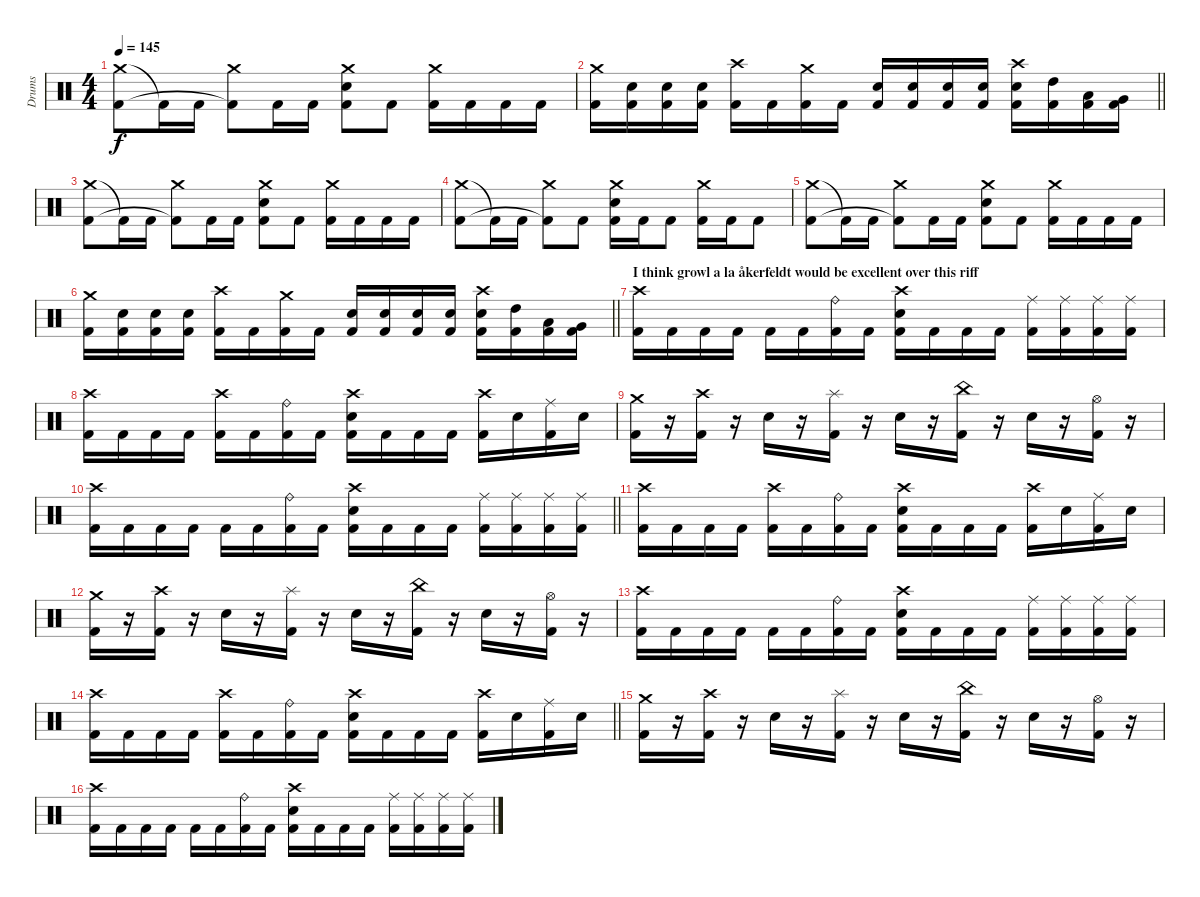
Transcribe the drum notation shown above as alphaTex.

\track ("Drums" "Drums") {mute instrument percussion}
\staff {score}
\articulation defaults
\ts (4 4)
\tempo 145
\clef neutral
\ks c
("Crash medium (hit)" "Kick (hit) 2").8{dy f} "Kick (hit) 2"{t}.16 "Kick (hit) 2".16 ("Crash medium (hit)" "Kick (hit) 2"{t}).8 "Kick (hit) 2".16 "Kick (hit) 2".16 ("Crash medium (hit)" "Electric Snare (hit)" "Kick (hit) 2").8 "Kick (hit) 2".8 ("Crash medium (hit)" "Kick (hit) 2").16 "Kick (hit) 2".16 "Kick (hit) 2".16 "Kick (hit) 2".16 |
\barLineRight lightlight
("Crash medium (hit)" "Kick (hit) 2").16 ("Electric Snare (hit)" "Kick (hit) 2").16 ("Electric Snare (hit)" "Kick (hit) 2").16 ("Electric Snare (hit)" "Kick (hit) 2").16 ("Crash high (hit)" "Kick (hit) 2").16 "Kick (hit) 2".16 ("Crash medium (hit)" "Kick (hit) 2").16 "Kick (hit) 2".16 ("Electric Snare (hit)" "Kick (hit) 2").16 ("Electric Snare (hit)" "Kick (hit) 2").16 ("Electric Snare (hit)" "Kick (hit) 2").16 ("Electric Snare (hit)" "Kick (hit) 2").16 ("Crash high (hit)" "Electric Snare (hit)" "Kick (hit) 2").16 ("High Tom (hit)" "Kick (hit) 2").16 ("Low Tom (hit)" "Kick (hit) 2").16 ("Very Low Tom (hit)" "Kick (hit) 2").16 |
("Crash medium (hit)" "Kick (hit) 2").8 "Kick (hit) 2"{t}.16 "Kick (hit) 2".16 ("Crash medium (hit)" "Kick (hit) 2"{t}).8 "Kick (hit) 2".16 "Kick (hit) 2".16 ("Crash medium (hit)" "Electric Snare (hit)" "Kick (hit) 2").8 "Kick (hit) 2".8 ("Crash medium (hit)" "Kick (hit) 2").16 "Kick (hit) 2".16 "Kick (hit) 2".16 "Kick (hit) 2".16 |
("Crash medium (hit)" "Kick (hit) 2").8 "Kick (hit) 2"{t}.16 "Kick (hit) 2".16 ("Crash medium (hit)" "Kick (hit) 2"{t}).8 "Kick (hit) 2".8 ("Crash medium (hit)" "Electric Snare (hit)" "Kick (hit) 2").16 "Kick (hit) 2".16 "Kick (hit) 2".8 ("Crash medium (hit)" "Kick (hit) 2").16 "Kick (hit) 2".16 "Kick (hit) 2".8 |
("Crash medium (hit)" "Kick (hit) 2").8 "Kick (hit) 2"{t}.16 "Kick (hit) 2".16 ("Crash medium (hit)" "Kick (hit) 2"{t}).8 "Kick (hit) 2".16 "Kick (hit) 2".16 ("Crash medium (hit)" "Electric Snare (hit)" "Kick (hit) 2").8 "Kick (hit) 2".8 ("Crash medium (hit)" "Kick (hit) 2").16 "Kick (hit) 2".16 "Kick (hit) 2".16 "Kick (hit) 2".16 |
\barLineRight lightlight
("Crash medium (hit)" "Kick (hit) 2").16 ("Electric Snare (hit)" "Kick (hit) 2").16 ("Electric Snare (hit)" "Kick (hit) 2").16 ("Electric Snare (hit)" "Kick (hit) 2").16 ("Crash high (hit)" "Kick (hit) 2").16 "Kick (hit) 2".16 ("Crash medium (hit)" "Kick (hit) 2").16 "Kick (hit) 2".16 ("Electric Snare (hit)" "Kick (hit) 2").16 ("Electric Snare (hit)" "Kick (hit) 2").16 ("Electric Snare (hit)" "Kick (hit) 2").16 ("Electric Snare (hit)" "Kick (hit) 2").16 ("Crash high (hit)" "Electric Snare (hit)" "Kick (hit) 2").16 ("High Tom (hit)" "Kick (hit) 2").16 ("Low Tom (hit)" "Kick (hit) 2").16 ("Very Low Tom (hit)" "Kick (hit) 2").16 |
\section ("" "I think growl a la åkerfeldt would be excellent over this riff")
("Crash high (hit)" "Kick (hit) 2").16 "Kick (hit) 2".16 "Kick (hit) 2".16 "Kick (hit) 2".16 "Kick (hit) 2".16 "Kick (hit) 2".16 ("Ride (bell)" "Kick (hit) 2").16 "Kick (hit) 2".16 ("Crash high (hit)" "Electric Snare (hit)" "Kick (hit) 2").16 "Kick (hit) 2".16 "Kick (hit) 2".16 "Kick (hit) 2".16 ("Ride (middle)" "Kick (hit) 2").16 ("Ride (middle)" "Kick (hit) 2").16 ("Ride (middle)" "Kick (hit) 2").16 ("Ride (middle)" "Kick (hit) 2").16 |
("Crash high (hit)" "Kick (hit) 2").16 "Kick (hit) 2".16 "Kick (hit) 2".16 "Kick (hit) 2".16 ("Crash high (hit)" "Kick (hit) 2").16 "Kick (hit) 2".16 ("Ride (bell)" "Kick (hit) 2").16 "Kick (hit) 2".16 ("Crash high (hit)" "Electric Snare (hit)" "Kick (hit) 2").16 "Kick (hit) 2".16 "Kick (hit) 2".16 "Kick (hit) 2".16 ("Crash high (hit)" "Kick (hit) 2").16 "Electric Snare (hit)".16 ("Ride (middle)" "Kick (hit) 2").16 "Electric Snare (hit)".16 |
("Crash medium (hit)" "Kick (hit) 2").16 r.16 ("Crash high (hit)" "Kick (hit) 2").16 r.16 "Electric Snare (hit)".16 r.16 ("Splash (hit)" "Kick (hit) 2").16 r.16 "Electric Snare (hit)".16 r.16 ("China (hit)" "Kick (hit) 2").16 r.16 "Electric Snare (hit)".16 r.16 ("Hi-Hat (open)" "Kick (hit) 2").16 r.16 |
\barLineRight lightlight
("Crash high (hit)" "Kick (hit) 2").16 "Kick (hit) 2".16 "Kick (hit) 2".16 "Kick (hit) 2".16 "Kick (hit) 2".16 "Kick (hit) 2".16 ("Ride (bell)" "Kick (hit) 2").16 "Kick (hit) 2".16 ("Crash high (hit)" "Electric Snare (hit)" "Kick (hit) 2").16 "Kick (hit) 2".16 "Kick (hit) 2".16 "Kick (hit) 2".16 ("Ride (middle)" "Kick (hit) 2").16 ("Ride (middle)" "Kick (hit) 2").16 ("Ride (middle)" "Kick (hit) 2").16 ("Ride (middle)" "Kick (hit) 2").16 |
("Crash high (hit)" "Kick (hit) 2").16 "Kick (hit) 2".16 "Kick (hit) 2".16 "Kick (hit) 2".16 ("Crash high (hit)" "Kick (hit) 2").16 "Kick (hit) 2".16 ("Ride (bell)" "Kick (hit) 2").16 "Kick (hit) 2".16 ("Crash high (hit)" "Electric Snare (hit)" "Kick (hit) 2").16 "Kick (hit) 2".16 "Kick (hit) 2".16 "Kick (hit) 2".16 ("Crash high (hit)" "Kick (hit) 2").16 "Electric Snare (hit)".16 ("Ride (middle)" "Kick (hit) 2").16 "Electric Snare (hit)".16 |
("Crash medium (hit)" "Kick (hit) 2").16 r.16 ("Crash high (hit)" "Kick (hit) 2").16 r.16 "Electric Snare (hit)".16 r.16 ("Splash (hit)" "Kick (hit) 2").16 r.16 "Electric Snare (hit)".16 r.16 ("China (hit)" "Kick (hit) 2").16 r.16 "Electric Snare (hit)".16 r.16 ("Hi-Hat (open)" "Kick (hit) 2").16 r.16 |
("Crash high (hit)" "Kick (hit) 2").16 "Kick (hit) 2".16 "Kick (hit) 2".16 "Kick (hit) 2".16 "Kick (hit) 2".16 "Kick (hit) 2".16 ("Ride (bell)" "Kick (hit) 2").16 "Kick (hit) 2".16 ("Crash high (hit)" "Electric Snare (hit)" "Kick (hit) 2").16 "Kick (hit) 2".16 "Kick (hit) 2".16 "Kick (hit) 2".16 ("Ride (middle)" "Kick (hit) 2").16 ("Ride (middle)" "Kick (hit) 2").16 ("Ride (middle)" "Kick (hit) 2").16 ("Ride (middle)" "Kick (hit) 2").16 |
\barLineRight lightlight
("Crash high (hit)" "Kick (hit) 2").16 "Kick (hit) 2".16 "Kick (hit) 2".16 "Kick (hit) 2".16 ("Crash high (hit)" "Kick (hit) 2").16 "Kick (hit) 2".16 ("Ride (bell)" "Kick (hit) 2").16 "Kick (hit) 2".16 ("Crash high (hit)" "Electric Snare (hit)" "Kick (hit) 2").16 "Kick (hit) 2".16 "Kick (hit) 2".16 "Kick (hit) 2".16 ("Crash high (hit)" "Kick (hit) 2").16 "Electric Snare (hit)".16 ("Ride (middle)" "Kick (hit) 2").16 "Electric Snare (hit)".16 |
("Crash medium (hit)" "Kick (hit) 2").16 r.16 ("Crash high (hit)" "Kick (hit) 2").16 r.16 "Electric Snare (hit)".16 r.16 ("Splash (hit)" "Kick (hit) 2").16 r.16 "Electric Snare (hit)".16 r.16 ("China (hit)" "Kick (hit) 2").16 r.16 "Electric Snare (hit)".16 r.16 ("Hi-Hat (open)" "Kick (hit) 2").16 r.16 |
("Crash high (hit)" "Kick (hit) 2").16 "Kick (hit) 2".16 "Kick (hit) 2".16 "Kick (hit) 2".16 "Kick (hit) 2".16 "Kick (hit) 2".16 ("Ride (bell)" "Kick (hit) 2").16 "Kick (hit) 2".16 ("Crash high (hit)" "Electric Snare (hit)" "Kick (hit) 2").16 "Kick (hit) 2".16 "Kick (hit) 2".16 "Kick (hit) 2".16 ("Ride (middle)" "Kick (hit) 2").16 ("Ride (middle)" "Kick (hit) 2").16 ("Ride (middle)" "Kick (hit) 2").16 ("Ride (middle)" "Kick (hit) 2").16
